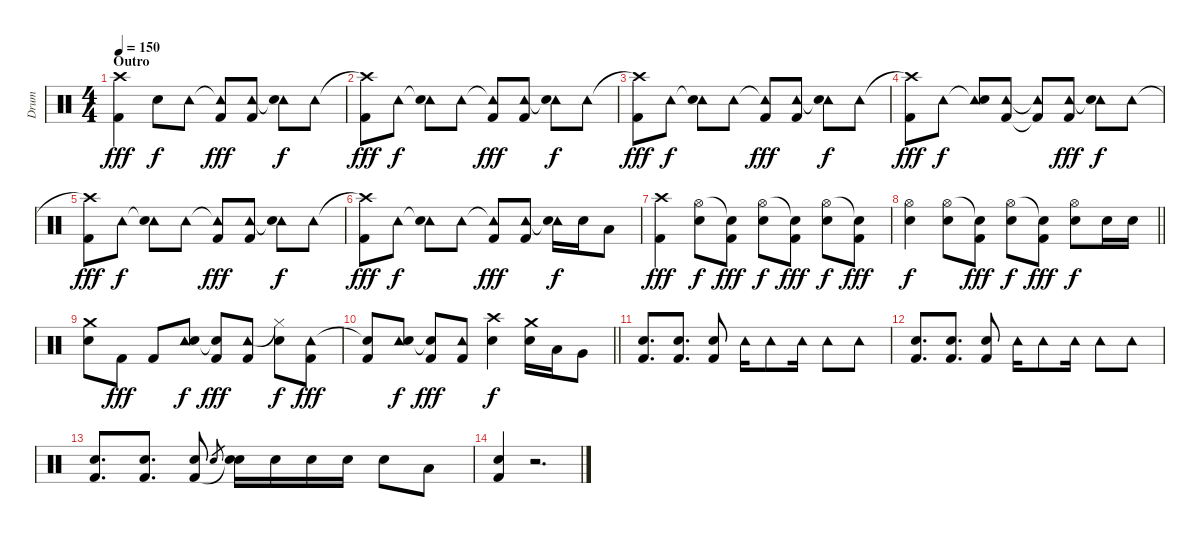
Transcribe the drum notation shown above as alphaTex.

\track ("Drum" "Drum") {instrument percussion}
\staff {score}
\articulation defaults
\ts (4 4)
\section ("" "Outro")
\tempo 150
\clef neutral
\ks c
("Crash high (hit)" "Kick (hit) 2").4{dy fff} "Snare (hit) 2".8{dy f} "Tambourine (hit)".8 ("Tambourine (hit)"{t} "Kick (hit) 2").8{dy fff} ("Tambourine (hit)" "Kick (hit) 2").8 ("Tambourine (hit)"{t} "Snare (hit) 2").8{dy f} "Tambourine (hit)".8 |
("Crash high (hit)"{t} "Kick (hit) 2").8{dy fff} "Tambourine (hit)".8{dy f} ("Tambourine (hit)"{t} "Snare (hit) 2").8 "Tambourine (hit)".8 ("Tambourine (hit)"{t} "Kick (hit) 2").8{dy fff} ("Tambourine (hit)" "Kick (hit) 2").8 ("Tambourine (hit)"{t} "Snare (hit) 2").8{dy f} "Tambourine (hit)".8 |
("Crash high (hit)"{t} "Kick (hit) 2").8{dy fff} "Tambourine (hit)".8{dy f} ("Tambourine (hit)"{t} "Snare (hit) 2").8 "Tambourine (hit)".8 ("Tambourine (hit)"{t} "Kick (hit) 2").8{dy fff} ("Tambourine (hit)" "Kick (hit) 2").8 ("Tambourine (hit)"{t} "Snare (hit) 2").8{dy f} "Tambourine (hit)".8 |
("Crash high (hit)"{t} "Kick (hit) 2").8{dy fff} "Tambourine (hit)".8{dy f} ("Tambourine (hit)"{t} "Snare (hit) 2").8 ("Tambourine (hit)" "Kick (hit) 2").8 ("Tambourine (hit)"{t} "Kick (hit) 2"{t}).8 ("Tambourine (hit)" "Kick (hit) 2").8{dy fff} ("Tambourine (hit)"{t} "Snare (hit) 2").8{dy f} "Tambourine (hit)".8 |
("Crash high (hit)"{t} "Kick (hit) 2").8{dy fff} "Tambourine (hit)".8{dy f} ("Tambourine (hit)"{t} "Snare (hit) 2").8 "Tambourine (hit)".8 ("Tambourine (hit)"{t} "Kick (hit) 2").8{dy fff} ("Tambourine (hit)" "Kick (hit) 2").8 ("Tambourine (hit)"{t} "Snare (hit) 2").8{dy f} "Tambourine (hit)".8 |
("Crash high (hit)"{t} "Kick (hit) 2").8{dy fff} "Tambourine (hit)".8{dy f} ("Tambourine (hit)"{t} "Snare (hit) 2").8 "Tambourine (hit)".8 ("Tambourine (hit)"{t} "Kick (hit) 2").8{dy fff} ("Tambourine (hit)" "Kick (hit) 2").8 ("Tambourine (hit)"{t} "Snare (hit) 2").16{dy f} "Snare (hit) 2".16 "Low Tom (hit)".8 |
("Crash high (hit)" "Kick (hit) 2").4{dy fff} ("Hi-Hat (open)" "Snare (hit) 2").8{dy f} ("Snare (hit)"{t} "Kick (hit) 2").8{dy fff} ("Hi-Hat (open)" "Snare (hit) 2").8{dy f} ("Snare (hit)"{t} "Kick (hit) 2").8{dy fff} ("Hi-Hat (open)" "Snare (hit) 2").8{dy f} ("Snare (hit)"{t} "Kick (hit) 2").8{dy fff} |
\barLineRight lightlight
("Hi-Hat (open)" "Snare (hit) 2").4{dy f} ("Hi-Hat (open)" "Snare (hit) 2").8 ("Snare (hit)"{t} "Kick (hit) 2").8{dy fff} ("Hi-Hat (open)" "Snare (hit) 2").8{dy f} ("Snare (hit)"{t} "Kick (hit) 2").8{dy fff} ("Hi-Hat (open)" "Snare (hit) 2").8{dy f} "Snare (hit) 2".16 "Snare (hit) 2".16 |
("Crash medium (hit)" "Snare (hit) 2").8 "Kick (hit) 2".8{dy fff} "Kick (hit) 2".8 ("Tambourine (hit)" "Snare (hit) 2").8{dy f} ("Snare (hit)"{t} "Kick (hit) 2").8{dy fff} ("Tambourine (hit)" "Kick (hit) 2").8 ("Hi-Hat (closed)"{t} "Snare (hit) 2").8{dy f} ("Tambourine (hit)" "Kick (hit) 2").8{dy fff} |
\barLineRight lightlight
("Snare (hit)"{t} "Kick (hit) 2").8 ("Tambourine (hit)" "Snare (hit) 2").8{dy f} ("Snare (hit)"{t} "Kick (hit) 2").8{dy fff} ("Tambourine (hit)" "Kick (hit) 2").8 ("Crash high (hit)" "Snare (hit) 2").4{dy f} ("Crash medium (hit)" "Snare (hit) 2").16 "Low Tom (hit)".16 "Very Low Tom (hit)".8 |
("Snare (hit) 2" "Kick (hit) 2").8{d} ("Snare (hit) 2" "Kick (hit) 2").8{d} ("Snare (hit) 2" "Kick (hit) 2").8 "Tambourine (hit)".16 "Tambourine (hit)".8 "Tambourine (hit)".16 "Tambourine (hit)".8 "Tambourine (hit)".8 |
("Snare (hit) 2" "Kick (hit) 2").8{d} ("Snare (hit) 2" "Kick (hit) 2").8{d} ("Snare (hit) 2" "Kick (hit) 2").8 "Tambourine (hit)".16 "Tambourine (hit)".8 "Tambourine (hit)".16 "Tambourine (hit)".8 "Tambourine (hit)".8 |
("Snare (hit) 2" "Kick (hit) 2").8{d} ("Snare (hit) 2" "Kick (hit) 2").8{d} ("Snare (hit) 2" "Kick (hit) 2").8 "Snare (hit) 2".8{gr} ("Snare (hit) 2" "Snare (hit)"{t}).16 "Snare (hit) 2".16 "Snare (hit) 2".16 "Snare (hit) 2".16 "Snare (hit) 2".8 "Low Tom (hit)".8 |
("Snare (hit) 2" "Kick (hit) 2").4 r.2{d}
